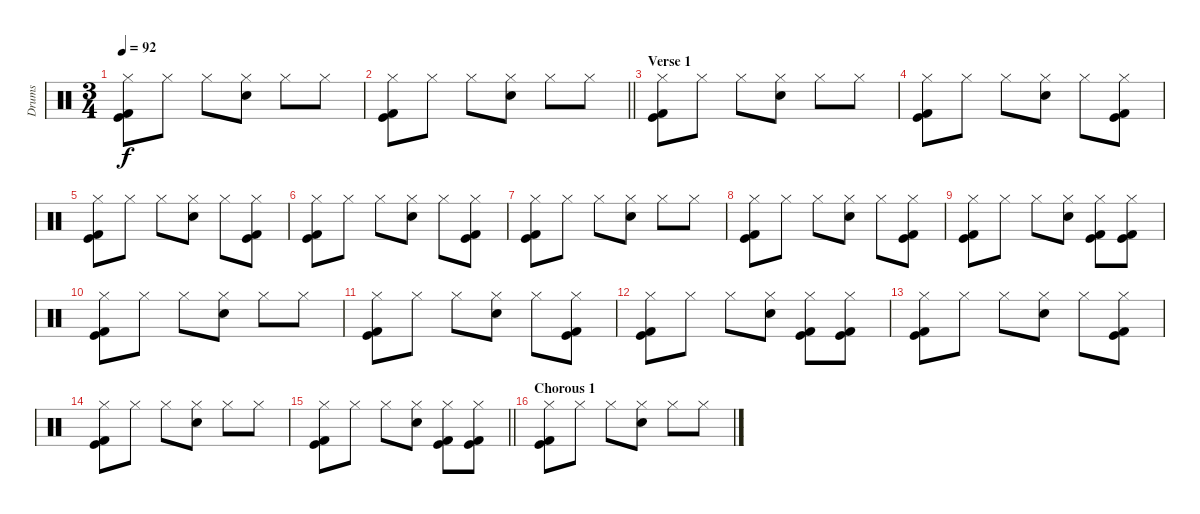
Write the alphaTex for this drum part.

\track ("Drums" "Drums") {instrument percussion}
\staff {score}
\articulation defaults
\ts (3 4)
\tempo 92
\clef neutral
\ks c
("Hi-Hat (closed)" "Kick (hit)" "Kick (hit) 2").8{dy f} "Hi-Hat (closed)".8 "Hi-Hat (closed)".8 ("Hi-Hat (closed)" "Electric Snare (hit)").8 "Hi-Hat (closed)".8 "Hi-Hat (closed)".8 |
\barLineRight lightlight
("Hi-Hat (closed)" "Kick (hit)" "Kick (hit) 2").8 "Hi-Hat (closed)".8 "Hi-Hat (closed)".8 ("Hi-Hat (closed)" "Electric Snare (hit)").8 "Hi-Hat (closed)".8 "Hi-Hat (closed)".8 |
\section ("" "Verse 1")
("Hi-Hat (closed)" "Kick (hit)" "Kick (hit) 2").8 "Hi-Hat (closed)".8 "Hi-Hat (closed)".8 ("Hi-Hat (closed)" "Electric Snare (hit)").8 "Hi-Hat (closed)".8 "Hi-Hat (closed)".8 |
("Hi-Hat (closed)" "Kick (hit)" "Kick (hit) 2").8 "Hi-Hat (closed)".8 "Hi-Hat (closed)".8 ("Hi-Hat (closed)" "Electric Snare (hit)").8 "Hi-Hat (closed)".8 ("Hi-Hat (closed)" "Kick (hit)" "Kick (hit) 2").8 |
("Hi-Hat (closed)" "Kick (hit)" "Kick (hit) 2").8 "Hi-Hat (closed)".8 "Hi-Hat (closed)".8 ("Hi-Hat (closed)" "Electric Snare (hit)").8 "Hi-Hat (closed)".8 ("Hi-Hat (closed)" "Kick (hit)" "Kick (hit) 2").8 |
("Hi-Hat (closed)" "Kick (hit)" "Kick (hit) 2").8 "Hi-Hat (closed)".8 "Hi-Hat (closed)".8 ("Hi-Hat (closed)" "Electric Snare (hit)").8 "Hi-Hat (closed)".8 ("Hi-Hat (closed)" "Kick (hit)" "Kick (hit) 2").8 |
("Hi-Hat (closed)" "Kick (hit)" "Kick (hit) 2").8 "Hi-Hat (closed)".8 "Hi-Hat (closed)".8 ("Hi-Hat (closed)" "Electric Snare (hit)").8 "Hi-Hat (closed)".8 "Hi-Hat (closed)".8 |
("Hi-Hat (closed)" "Kick (hit)" "Kick (hit) 2").8 "Hi-Hat (closed)".8 "Hi-Hat (closed)".8 ("Hi-Hat (closed)" "Electric Snare (hit)").8 "Hi-Hat (closed)".8 ("Hi-Hat (closed)" "Kick (hit)" "Kick (hit) 2").8 |
("Hi-Hat (closed)" "Kick (hit)" "Kick (hit) 2").8 "Hi-Hat (closed)".8 "Hi-Hat (closed)".8 ("Hi-Hat (closed)" "Electric Snare (hit)").8 ("Hi-Hat (closed)" "Kick (hit)" "Kick (hit) 2").8 ("Hi-Hat (closed)" "Kick (hit)" "Kick (hit) 2").8 |
("Hi-Hat (closed)" "Kick (hit)" "Kick (hit) 2").8 "Hi-Hat (closed)".8 "Hi-Hat (closed)".8 ("Hi-Hat (closed)" "Electric Snare (hit)").8 "Hi-Hat (closed)".8 "Hi-Hat (closed)".8 |
("Hi-Hat (closed)" "Kick (hit)" "Kick (hit) 2").8 "Hi-Hat (closed)".8 "Hi-Hat (closed)".8 ("Hi-Hat (closed)" "Electric Snare (hit)").8 "Hi-Hat (closed)".8 ("Hi-Hat (closed)" "Kick (hit)" "Kick (hit) 2").8 |
("Hi-Hat (closed)" "Kick (hit)" "Kick (hit) 2").8 "Hi-Hat (closed)".8 "Hi-Hat (closed)".8 ("Hi-Hat (closed)" "Electric Snare (hit)").8 ("Hi-Hat (closed)" "Kick (hit)" "Kick (hit) 2").8 ("Hi-Hat (closed)" "Kick (hit)" "Kick (hit) 2").8 |
("Hi-Hat (closed)" "Kick (hit)" "Kick (hit) 2").8 "Hi-Hat (closed)".8 "Hi-Hat (closed)".8 ("Hi-Hat (closed)" "Electric Snare (hit)").8 "Hi-Hat (closed)".8 ("Hi-Hat (closed)" "Kick (hit)" "Kick (hit) 2").8 |
("Hi-Hat (closed)" "Kick (hit)" "Kick (hit) 2").8 "Hi-Hat (closed)".8 "Hi-Hat (closed)".8 ("Hi-Hat (closed)" "Electric Snare (hit)").8 "Hi-Hat (closed)".8 "Hi-Hat (closed)".8 |
\barLineRight lightlight
("Hi-Hat (closed)" "Kick (hit)" "Kick (hit) 2").8 "Hi-Hat (closed)".8 "Hi-Hat (closed)".8 ("Hi-Hat (closed)" "Electric Snare (hit)").8 ("Hi-Hat (closed)" "Kick (hit)" "Kick (hit) 2").8 ("Hi-Hat (closed)" "Kick (hit)" "Kick (hit) 2").8 |
\section ("" "Chorous 1")
("Hi-Hat (closed)" "Kick (hit)" "Kick (hit) 2").8 "Hi-Hat (closed)".8 "Hi-Hat (closed)".8 ("Hi-Hat (closed)" "Electric Snare (hit)").8 "Hi-Hat (closed)".8 "Hi-Hat (closed)".8
